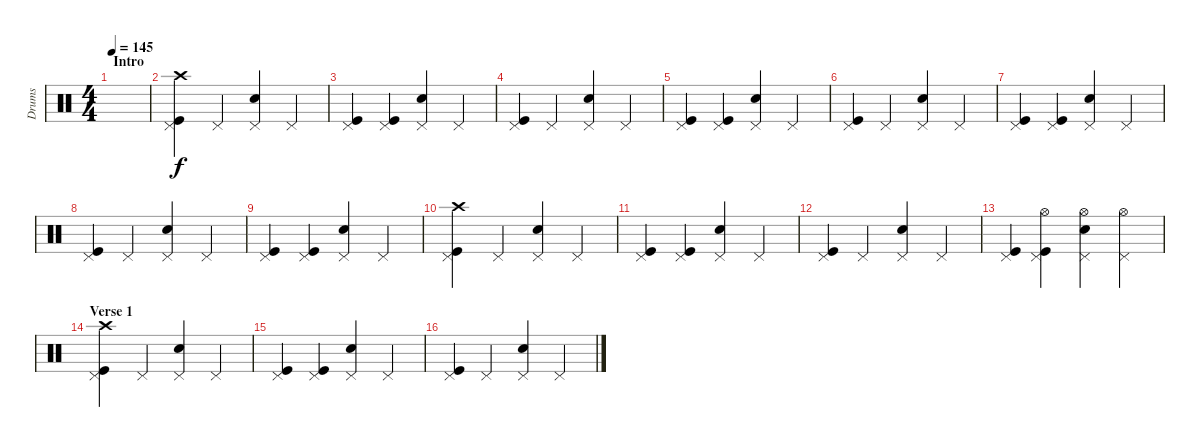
\track ("Drums" "Drums") {instrument percussion}
\staff {score}
\articulation defaults
\ts (4 4)
\section ("" "Intro")
\tempo 145
\clef neutral
\ks c
|
("Crash high (hit)" "Pedal Hi-Hat (hit)" "Kick (hit)").4 "Pedal Hi-Hat (hit)".4 ("Pedal Hi-Hat (hit)" "Snare (hit) 2").4 "Pedal Hi-Hat (hit)".4 |
("Pedal Hi-Hat (hit)" "Kick (hit)").4 ("Pedal Hi-Hat (hit)" "Kick (hit)").4 ("Pedal Hi-Hat (hit)" "Snare (hit) 2").4 "Pedal Hi-Hat (hit)".4 |
("Pedal Hi-Hat (hit)" "Kick (hit)").4 "Pedal Hi-Hat (hit)".4 ("Pedal Hi-Hat (hit)" "Snare (hit) 2").4 "Pedal Hi-Hat (hit)".4 |
("Pedal Hi-Hat (hit)" "Kick (hit)").4 ("Pedal Hi-Hat (hit)" "Kick (hit)").4 ("Pedal Hi-Hat (hit)" "Snare (hit) 2").4 "Pedal Hi-Hat (hit)".4 |
("Pedal Hi-Hat (hit)" "Kick (hit)").4 "Pedal Hi-Hat (hit)".4 ("Pedal Hi-Hat (hit)" "Snare (hit) 2").4 "Pedal Hi-Hat (hit)".4 |
("Pedal Hi-Hat (hit)" "Kick (hit)").4 ("Pedal Hi-Hat (hit)" "Kick (hit)").4 ("Pedal Hi-Hat (hit)" "Snare (hit) 2").4 "Pedal Hi-Hat (hit)".4 |
("Pedal Hi-Hat (hit)" "Kick (hit)").4 "Pedal Hi-Hat (hit)".4 ("Pedal Hi-Hat (hit)" "Snare (hit) 2").4 "Pedal Hi-Hat (hit)".4 |
("Pedal Hi-Hat (hit)" "Kick (hit)").4 ("Pedal Hi-Hat (hit)" "Kick (hit)").4 ("Pedal Hi-Hat (hit)" "Snare (hit) 2").4 "Pedal Hi-Hat (hit)".4 |
("Crash high (hit)" "Pedal Hi-Hat (hit)" "Kick (hit)").4 "Pedal Hi-Hat (hit)".4 ("Pedal Hi-Hat (hit)" "Snare (hit) 2").4 "Pedal Hi-Hat (hit)".4 |
("Pedal Hi-Hat (hit)" "Kick (hit)").4 ("Pedal Hi-Hat (hit)" "Kick (hit)").4 ("Pedal Hi-Hat (hit)" "Snare (hit) 2").4 "Pedal Hi-Hat (hit)".4 |
("Pedal Hi-Hat (hit)" "Kick (hit)").4 "Pedal Hi-Hat (hit)".4 ("Pedal Hi-Hat (hit)" "Snare (hit) 2").4 "Pedal Hi-Hat (hit)".4 |
("Pedal Hi-Hat (hit)" "Kick (hit)").4 ("Pedal Hi-Hat (hit)" "Hi-Hat (open)" "Kick (hit)").4 ("Pedal Hi-Hat (hit)" "Snare (hit) 2" "Hi-Hat (open)").4 ("Pedal Hi-Hat (hit)" "Hi-Hat (open)").4 |
\section ("" "Verse 1")
("Crash high (hit)" "Pedal Hi-Hat (hit)" "Kick (hit)").4 "Pedal Hi-Hat (hit)".4 ("Pedal Hi-Hat (hit)" "Snare (hit) 2").4 "Pedal Hi-Hat (hit)".4 |
("Pedal Hi-Hat (hit)" "Kick (hit)").4 ("Pedal Hi-Hat (hit)" "Kick (hit)").4 ("Pedal Hi-Hat (hit)" "Snare (hit) 2").4 "Pedal Hi-Hat (hit)".4 |
("Pedal Hi-Hat (hit)" "Kick (hit)").4 "Pedal Hi-Hat (hit)".4 ("Pedal Hi-Hat (hit)" "Snare (hit) 2").4 "Pedal Hi-Hat (hit)".4
